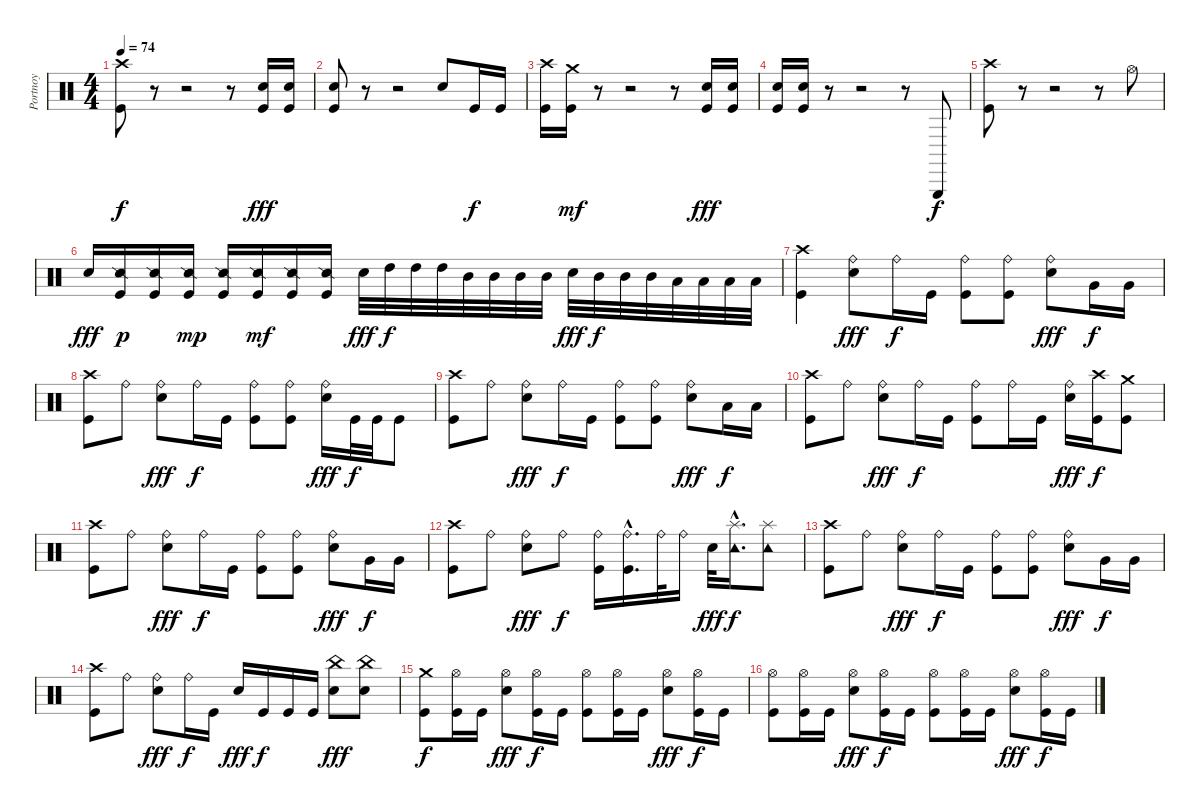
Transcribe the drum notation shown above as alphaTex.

\track ("Portnoy" "Portnoy") {instrument percussion}
\staff {score}
\articulation defaults
\ts (4 4)
\tempo 74
\clef neutral
\ks c
("Crash high (hit)" "Kick (hit)").8{dy f} r.8 r.2 r.8 ("Electric Snare (hit)" "Kick (hit)").16{dy fff} ("Electric Snare (hit)" "Kick (hit)").16 |
("Electric Snare (hit)" "Kick (hit)").8 r.8 r.2 "Electric Snare (hit)".8 "Kick (hit)".16{dy f} "Kick (hit)".16 |
("Crash high (hit)" "Kick (hit)").16 ("Crash medium (hit)" "Kick (hit)").16{dy mf} r.8 r.2 r.8 ("Electric Snare (hit)" "Kick (hit)").16{dy fff} ("Electric Snare (hit)" "Kick (hit)").16 |
("Electric Snare (hit)" "Kick (hit)").16 ("Electric Snare (hit)" "Kick (hit)").16 r.8 r.2 r.8 "Triangle (hit)".8{dy f} |
("Crash high (hit)" "Kick (hit)").8 r.8 r.2 r.8 "Hi-Hat (open)".8 |
"Electric Snare (hit)".16{dy fff} ("Snare (side stick) 2" "Kick (hit)").16{dy p} ("Snare (side stick) 2" "Kick (hit)").16 ("Snare (side stick) 2" "Kick (hit)").16{dy mp} ("Snare (side stick) 2" "Kick (hit)").16 ("Snare (side stick) 2" "Kick (hit)").16{dy mf} ("Snare (side stick) 2" "Kick (hit)").16 ("Snare (side stick) 2" "Kick (hit)").16 "Electric Snare (hit)".32{dy fff} "High Tom (hit)".32{dy f} "High Tom (hit)".32 "High Tom (hit)".32 "Mid Tom (hit)".32 "Mid Tom (hit)".32 "Mid Tom (hit)".32 "Mid Tom (hit)".32 "Electric Snare (hit)".32{dy fff} "Mid Tom (hit)".32{dy f} "Mid Tom (hit)".32 "Mid Tom (hit)".32 "Low Tom (hit)".32 "Low Tom (hit)".32 "Low Tom (hit)".32 "Low Tom (hit)".32 |
("Crash high (hit)" "Kick (hit)").4 ("Ride (bell)" "Electric Snare (hit)").8{dy fff} "Ride (bell)".16{dy f} "Kick (hit)".16 ("Ride (bell)" "Kick (hit)").8 ("Ride (bell)" "Kick (hit)").8 ("Ride (bell)" "Electric Snare (hit)").8{dy fff} "Very Low Tom (hit)".16{dy f} "Very Low Tom (hit)".16 |
("Crash high (hit)" "Kick (hit)").8 "Ride (bell)".8 ("Ride (bell)" "Electric Snare (hit)").8{dy fff} "Ride (bell)".16{dy f} "Kick (hit)".16 ("Ride (bell)" "Kick (hit)").8 ("Ride (bell)" "Kick (hit)").8 ("Ride (bell)" "Electric Snare (hit)").16{dy fff} "Kick (hit)".32{dy f} "Kick (hit)".32 "Kick (hit)".8 |
("Crash high (hit)" "Kick (hit)").8 "Ride (bell)".8 ("Ride (bell)" "Electric Snare (hit)").8{dy fff} "Ride (bell)".16{dy f} "Kick (hit)".16 ("Ride (bell)" "Kick (hit)").8 ("Ride (bell)" "Kick (hit)").8 ("Ride (bell)" "Electric Snare (hit)").8{dy fff} "Low Floor Tom (hit)".16{dy f} "Low Floor Tom (hit)".16 |
("Crash high (hit)" "Kick (hit)").8 "Ride (bell)".8 ("Ride (bell)" "Electric Snare (hit)").8{dy fff} "Ride (bell)".16{dy f} "Kick (hit)".16 ("Ride (bell)" "Kick (hit)").8 "Ride (bell)".16 "Kick (hit)".16 ("Ride (bell)" "Electric Snare (hit)").16{dy fff} ("Crash high (hit)" "Kick (hit)").16{dy f} ("Crash medium (hit)" "Kick (hit)").8 |
("Crash high (hit)" "Kick (hit)").8 "Ride (bell)".8 ("Ride (bell)" "Electric Snare (hit)").8{dy fff} "Ride (bell)".16{dy f} "Kick (hit)".16 ("Ride (bell)" "Kick (hit)").8 ("Ride (bell)" "Kick (hit)").8 ("Ride (bell)" "Electric Snare (hit)").8{dy fff} "Very Low Tom (hit)".16{dy f} "Very Low Tom (hit)".16 |
("Crash high (hit)" "Kick (hit)").8 "Ride (bell)".8 ("Ride (bell)" "Electric Snare (hit)").8{dy fff} "Ride (bell)".8{dy f} ("Ride (bell)" "Kick (hit)").16 ("Ride (bell)"{hac} "Kick (hit)"{hac}).16{d} "Ride (bell)".32 "Ride (bell)".16 "Electric Snare (hit)".32{dy fff} ("Splash (hit)"{hac} "Tambourine (hit)"{hac}).16{d dy f} ("Splash (hit)" "Tambourine (hit)").8 |
("Crash high (hit)" "Kick (hit)").8 "Ride (bell)".8 ("Ride (bell)" "Electric Snare (hit)").8{dy fff} "Ride (bell)".16{dy f} "Kick (hit)".16 ("Ride (bell)" "Kick (hit)").8 ("Ride (bell)" "Kick (hit)").8 ("Ride (bell)" "Electric Snare (hit)").8{dy fff} "Very Low Tom (hit)".16{dy f} "Very Low Tom (hit)".16 |
("Crash high (hit)" "Kick (hit)").8 "Ride (bell)".8 ("Ride (bell)" "Electric Snare (hit)").8{dy fff} "Ride (bell)".16{dy f} "Kick (hit)".16 "Electric Snare (hit)".16{dy fff} "Kick (hit)".16{dy f} "Kick (hit)".16 "Kick (hit)".16 ("China (hit)" "Electric Snare (hit)").8{dy fff} ("China (hit)" "Electric Snare (hit)").8 |
("Crash medium (hit)" "Kick (hit)").8{dy f} ("Hi-Hat (open)" "Kick (hit)").16 "Kick (hit)".16 ("Hi-Hat (open)" "Electric Snare (hit)").8{dy fff} ("Hi-Hat (open)" "Kick (hit)").16{dy f} "Kick (hit)".16 ("Hi-Hat (open)" "Kick (hit)").8 ("Hi-Hat (open)" "Kick (hit)").16 "Kick (hit)".16 ("Hi-Hat (open)" "Electric Snare (hit)").8{dy fff} ("Hi-Hat (open)" "Kick (hit)").16{dy f} "Kick (hit)".16 |
("Hi-Hat (open)" "Kick (hit)").8 ("Hi-Hat (open)" "Kick (hit)").16 "Kick (hit)".16 ("Hi-Hat (open)" "Electric Snare (hit)").8{dy fff} ("Hi-Hat (open)" "Kick (hit)").16{dy f} "Kick (hit)".16 ("Hi-Hat (open)" "Kick (hit)").8 ("Hi-Hat (open)" "Kick (hit)").16 "Kick (hit)".16 ("Hi-Hat (open)" "Electric Snare (hit)").8{dy fff} ("Hi-Hat (open)" "Kick (hit)").16{dy f} "Kick (hit)".16
